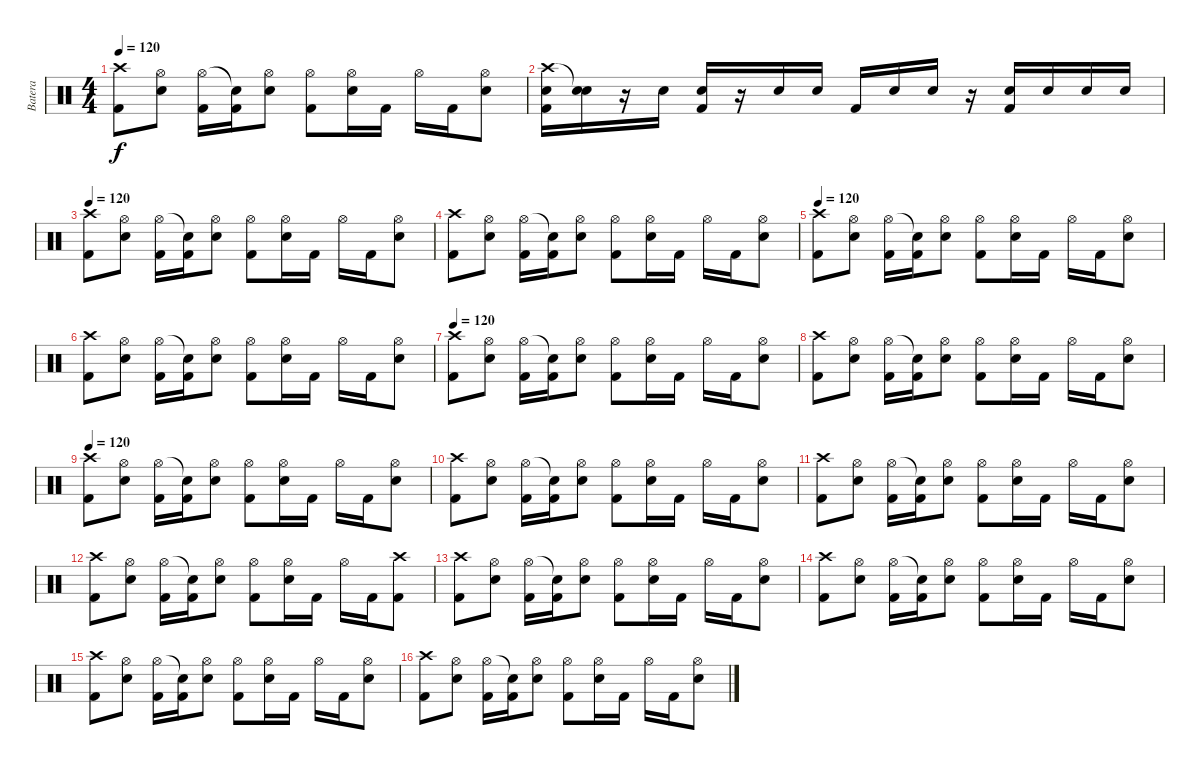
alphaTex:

\track ("Batera" "Batera") {instrument percussion}
\staff {score}
\articulation defaults
\ts (4 4)
\tempo 120
\clef neutral
\ks c
("Crash high (hit)" "Kick (hit) 2").8{dy f} ("Hi-Hat (open)" "Electric Snare (hit)").8 ("Hi-Hat (open)" "Kick (hit) 2").16 ("Snare (hit)"{t} "Kick (hit) 2").16 ("Hi-Hat (open)" "Electric Snare (hit)").8 ("Hi-Hat (open)" "Kick (hit) 2").8 ("Hi-Hat (open)" "Electric Snare (hit)").16 "Kick (hit) 2".16 "Hi-Hat (open)".16 "Kick (hit) 2".16 ("Hi-Hat (open)" "Electric Snare (hit)").8 |
("Crash high (hit)" "Electric Snare (hit)" "Kick (hit) 2").16 ("Snare (hit)"{t} "Electric Snare (hit)").16 r.16 "Electric Snare (hit)".16 ("Electric Snare (hit)" "Kick (hit) 2").16 r.16 "Electric Snare (hit)".16 "Electric Snare (hit)".16 "Kick (hit) 2".16 "Electric Snare (hit)".16 "Electric Snare (hit)".16 r.16 ("Electric Snare (hit)" "Kick (hit) 2").16 "Electric Snare (hit)".16 "Electric Snare (hit)".16 "Electric Snare (hit)".16 |
\tempo 120
("Crash high (hit)" "Kick (hit) 2").8 ("Hi-Hat (open)" "Electric Snare (hit)").8 ("Hi-Hat (open)" "Kick (hit) 2").16 ("Snare (hit)"{t} "Kick (hit) 2").16 ("Hi-Hat (open)" "Electric Snare (hit)").8 ("Hi-Hat (open)" "Kick (hit) 2").8 ("Hi-Hat (open)" "Electric Snare (hit)").16 "Kick (hit) 2".16 "Hi-Hat (open)".16 "Kick (hit) 2".16 ("Hi-Hat (open)" "Electric Snare (hit)").8 |
("Crash high (hit)" "Kick (hit) 2").8 ("Hi-Hat (open)" "Electric Snare (hit)").8 ("Hi-Hat (open)" "Kick (hit) 2").16 ("Snare (hit)"{t} "Kick (hit) 2").16 ("Hi-Hat (open)" "Electric Snare (hit)").8 ("Hi-Hat (open)" "Kick (hit) 2").8 ("Hi-Hat (open)" "Electric Snare (hit)").16 "Kick (hit) 2".16 "Hi-Hat (open)".16 "Kick (hit) 2".16 ("Hi-Hat (open)" "Electric Snare (hit)").8 |
\tempo 120
("Crash high (hit)" "Kick (hit) 2").8 ("Hi-Hat (open)" "Electric Snare (hit)").8 ("Hi-Hat (open)" "Kick (hit) 2").16 ("Snare (hit)"{t} "Kick (hit) 2").16 ("Hi-Hat (open)" "Electric Snare (hit)").8 ("Hi-Hat (open)" "Kick (hit) 2").8 ("Hi-Hat (open)" "Electric Snare (hit)").16 "Kick (hit) 2".16 "Hi-Hat (open)".16 "Kick (hit) 2".16 ("Hi-Hat (open)" "Electric Snare (hit)").8 |
("Crash high (hit)" "Kick (hit) 2").8 ("Hi-Hat (open)" "Electric Snare (hit)").8 ("Hi-Hat (open)" "Kick (hit) 2").16 ("Snare (hit)"{t} "Kick (hit) 2").16 ("Hi-Hat (open)" "Electric Snare (hit)").8 ("Hi-Hat (open)" "Kick (hit) 2").8 ("Hi-Hat (open)" "Electric Snare (hit)").16 "Kick (hit) 2".16 "Hi-Hat (open)".16 "Kick (hit) 2".16 ("Hi-Hat (open)" "Electric Snare (hit)").8 |
\tempo 120
("Crash high (hit)" "Kick (hit) 2").8 ("Hi-Hat (open)" "Electric Snare (hit)").8 ("Hi-Hat (open)" "Kick (hit) 2").16 ("Snare (hit)"{t} "Kick (hit) 2").16 ("Hi-Hat (open)" "Electric Snare (hit)").8 ("Hi-Hat (open)" "Kick (hit) 2").8 ("Hi-Hat (open)" "Electric Snare (hit)").16 "Kick (hit) 2".16 "Hi-Hat (open)".16 "Kick (hit) 2".16 ("Hi-Hat (open)" "Electric Snare (hit)").8 |
("Crash high (hit)" "Kick (hit) 2").8 ("Hi-Hat (open)" "Electric Snare (hit)").8 ("Hi-Hat (open)" "Kick (hit) 2").16 ("Snare (hit)"{t} "Kick (hit) 2").16 ("Hi-Hat (open)" "Electric Snare (hit)").8 ("Hi-Hat (open)" "Kick (hit) 2").8 ("Hi-Hat (open)" "Electric Snare (hit)").16 "Kick (hit) 2".16 "Hi-Hat (open)".16 "Kick (hit) 2".16 ("Hi-Hat (open)" "Electric Snare (hit)").8 |
\tempo 120
("Crash high (hit)" "Kick (hit) 2").8 ("Hi-Hat (open)" "Electric Snare (hit)").8 ("Hi-Hat (open)" "Kick (hit) 2").16 ("Snare (hit)"{t} "Kick (hit) 2").16 ("Hi-Hat (open)" "Electric Snare (hit)").8 ("Hi-Hat (open)" "Kick (hit) 2").8 ("Hi-Hat (open)" "Electric Snare (hit)").16 "Kick (hit) 2".16 "Hi-Hat (open)".16 "Kick (hit) 2".16 ("Hi-Hat (open)" "Electric Snare (hit)").8 |
("Crash high (hit)" "Kick (hit) 2").8 ("Hi-Hat (open)" "Electric Snare (hit)").8 ("Hi-Hat (open)" "Kick (hit) 2").16 ("Snare (hit)"{t} "Kick (hit) 2").16 ("Hi-Hat (open)" "Electric Snare (hit)").8 ("Hi-Hat (open)" "Kick (hit) 2").8 ("Hi-Hat (open)" "Electric Snare (hit)").16 "Kick (hit) 2".16 "Hi-Hat (open)".16 "Kick (hit) 2".16 ("Hi-Hat (open)" "Electric Snare (hit)").8 |
("Crash high (hit)" "Kick (hit) 2").8 ("Hi-Hat (open)" "Electric Snare (hit)").8 ("Hi-Hat (open)" "Kick (hit) 2").16 ("Snare (hit)"{t} "Kick (hit) 2").16 ("Hi-Hat (open)" "Electric Snare (hit)").8 ("Hi-Hat (open)" "Kick (hit) 2").8 ("Hi-Hat (open)" "Electric Snare (hit)").16 "Kick (hit) 2".16 "Hi-Hat (open)".16 "Kick (hit) 2".16 ("Hi-Hat (open)" "Electric Snare (hit)").8 |
("Crash high (hit)" "Kick (hit) 2").8 ("Hi-Hat (open)" "Electric Snare (hit)").8 ("Hi-Hat (open)" "Kick (hit) 2").16 ("Snare (hit)"{t} "Kick (hit) 2").16 ("Hi-Hat (open)" "Electric Snare (hit)").8 ("Hi-Hat (open)" "Kick (hit) 2").8 ("Hi-Hat (open)" "Electric Snare (hit)").16 "Kick (hit) 2".16 "Hi-Hat (open)".16 "Kick (hit) 2".16 ("Crash high (hit)" "Kick (hit) 2").8 |
("Crash high (hit)" "Kick (hit) 2").8 ("Hi-Hat (open)" "Electric Snare (hit)").8 ("Hi-Hat (open)" "Kick (hit) 2").16 ("Snare (hit)"{t} "Kick (hit) 2").16 ("Hi-Hat (open)" "Electric Snare (hit)").8 ("Hi-Hat (open)" "Kick (hit) 2").8 ("Hi-Hat (open)" "Electric Snare (hit)").16 "Kick (hit) 2".16 "Hi-Hat (open)".16 "Kick (hit) 2".16 ("Hi-Hat (open)" "Electric Snare (hit)").8 |
("Crash high (hit)" "Kick (hit) 2").8 ("Hi-Hat (open)" "Electric Snare (hit)").8 ("Hi-Hat (open)" "Kick (hit) 2").16 ("Snare (hit)"{t} "Kick (hit) 2").16 ("Hi-Hat (open)" "Electric Snare (hit)").8 ("Hi-Hat (open)" "Kick (hit) 2").8 ("Hi-Hat (open)" "Electric Snare (hit)").16 "Kick (hit) 2".16 "Hi-Hat (open)".16 "Kick (hit) 2".16 ("Hi-Hat (open)" "Electric Snare (hit)").8 |
("Crash high (hit)" "Kick (hit) 2").8 ("Hi-Hat (open)" "Electric Snare (hit)").8 ("Hi-Hat (open)" "Kick (hit) 2").16 ("Snare (hit)"{t} "Kick (hit) 2").16 ("Hi-Hat (open)" "Electric Snare (hit)").8 ("Hi-Hat (open)" "Kick (hit) 2").8 ("Hi-Hat (open)" "Electric Snare (hit)").16 "Kick (hit) 2".16 "Hi-Hat (open)".16 "Kick (hit) 2".16 ("Hi-Hat (open)" "Electric Snare (hit)").8 |
("Crash high (hit)" "Kick (hit) 2").8 ("Hi-Hat (open)" "Electric Snare (hit)").8 ("Hi-Hat (open)" "Kick (hit) 2").16 ("Snare (hit)"{t} "Kick (hit) 2").16 ("Hi-Hat (open)" "Electric Snare (hit)").8 ("Hi-Hat (open)" "Kick (hit) 2").8 ("Hi-Hat (open)" "Electric Snare (hit)").16 "Kick (hit) 2".16 "Hi-Hat (open)".16 "Kick (hit) 2".16 ("Hi-Hat (open)" "Electric Snare (hit)").8
